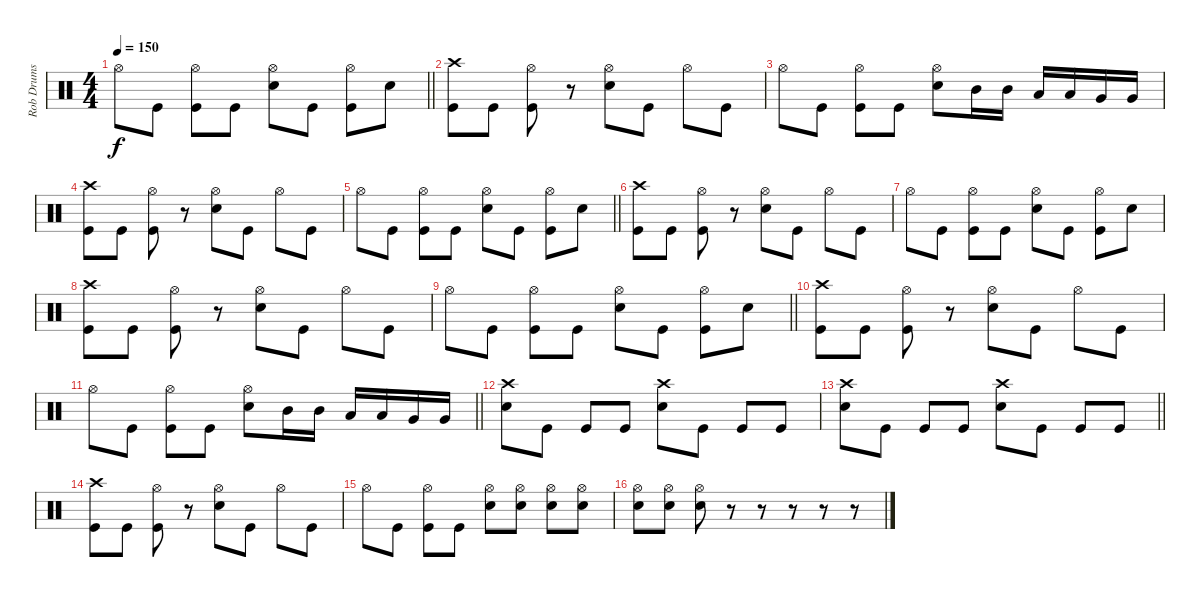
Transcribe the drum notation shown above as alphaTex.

\track ("Rob Drums" "Rob Drums") {instrument percussion}
\staff {score}
\articulation defaults
\ts (4 4)
\tempo 150
\clef neutral
\barLineRight lightlight
\ks c "Hi-Hat (open)".8{dy f} "Kick (hit)".8
("Hi-Hat (open)" "Kick (hit)").8 "Kick (hit)".8 ("Hi-Hat (open)" "Snare (hit) 2").8 "Kick (hit)".8 ("Hi-Hat (open)" "Kick (hit)").8 "Snare (hit) 2".8 |
("Crash high (hit)" "Kick (hit)").8 "Kick (hit)".8 ("Hi-Hat (open)" "Kick (hit)").8 r.8 ("Hi-Hat (open)" "Snare (hit) 2").8 "Kick (hit)".8 "Hi-Hat (open)".8 "Kick (hit)".8 |
"Hi-Hat (open)".8 "Kick (hit)".8 ("Hi-Hat (open)" "Kick (hit)").8 "Kick (hit)".8 ("Hi-Hat (open)" "Snare (hit) 2").8 "Mid Tom (hit)".16 "Mid Tom (hit)".16 "Low Tom (hit)".16 "Low Tom (hit)".16 "Very Low Tom (hit)".16 "Very Low Tom (hit)".16 |
("Crash high (hit)" "Kick (hit)").8 "Kick (hit)".8 ("Hi-Hat (open)" "Kick (hit)").8 r.8 ("Hi-Hat (open)" "Snare (hit) 2").8 "Kick (hit)".8 "Hi-Hat (open)".8 "Kick (hit)".8 |
\barLineRight lightlight "Hi-Hat (open)".8 "Kick (hit)".8
("Hi-Hat (open)" "Kick (hit)").8 "Kick (hit)".8 ("Hi-Hat (open)" "Snare (hit) 2").8 "Kick (hit)".8 ("Hi-Hat (open)" "Kick (hit)").8 "Snare (hit) 2".8 |
("Crash high (hit)" "Kick (hit)").8 "Kick (hit)".8 ("Hi-Hat (open)" "Kick (hit)").8 r.8 ("Hi-Hat (open)" "Snare (hit) 2").8 "Kick (hit)".8 "Hi-Hat (open)".8 "Kick (hit)".8 |
"Hi-Hat (open)".8 "Kick (hit)".8 ("Hi-Hat (open)" "Kick (hit)").8 "Kick (hit)".8 ("Hi-Hat (open)" "Snare (hit) 2").8 "Kick (hit)".8 ("Hi-Hat (open)" "Kick (hit)").8 "Snare (hit) 2".8 |
("Crash high (hit)" "Kick (hit)").8 "Kick (hit)".8 ("Hi-Hat (open)" "Kick (hit)").8 r.8 ("Hi-Hat (open)" "Snare (hit) 2").8 "Kick (hit)".8 "Hi-Hat (open)".8 "Kick (hit)".8 |
\barLineRight lightlight "Hi-Hat (open)".8 "Kick (hit)".8
("Hi-Hat (open)" "Kick (hit)").8 "Kick (hit)".8 ("Hi-Hat (open)" "Snare (hit) 2").8 "Kick (hit)".8 ("Hi-Hat (open)" "Kick (hit)").8 "Snare (hit) 2".8 |
("Crash high (hit)" "Kick (hit)").8 "Kick (hit)".8 ("Hi-Hat (open)" "Kick (hit)").8 r.8 ("Hi-Hat (open)" "Snare (hit) 2").8 "Kick (hit)".8 "Hi-Hat (open)".8 "Kick (hit)".8 |
\barLineRight lightlight "Hi-Hat (open)".8 "Kick (hit)".8
("Hi-Hat (open)" "Kick (hit)").8 "Kick (hit)".8 ("Hi-Hat (open)" "Snare (hit) 2").8 "Mid Tom (hit)".16 "Mid Tom (hit)".16 "Low Tom (hit)".16 "Low Tom (hit)".16 "Very Low Tom (hit)".16 "Very Low Tom (hit)".16 |
("Crash high (hit)" "Snare (hit) 2").8 "Kick (hit)".8 "Kick (hit)".8 "Kick (hit)".8 ("Crash high (hit)" "Snare (hit) 2").8 "Kick (hit)".8 "Kick (hit)".8 "Kick (hit)".8 |
\barLineRight lightlight
("Crash high (hit)" "Snare (hit) 2").8 "Kick (hit)".8 "Kick (hit)".8 "Kick (hit)".8 ("Crash high (hit)" "Snare (hit) 2").8 "Kick (hit)".8 "Kick (hit)".8 "Kick (hit)".8 |
("Crash high (hit)" "Kick (hit)").8 "Kick (hit)".8 ("Hi-Hat (open)" "Kick (hit)").8 r.8 ("Hi-Hat (open)" "Snare (hit) 2").8 "Kick (hit)".8 "Hi-Hat (open)".8 "Kick (hit)".8 |
"Hi-Hat (open)".8 "Kick (hit)".8 ("Hi-Hat (open)" "Kick (hit)").8 "Kick (hit)".8 ("Hi-Hat (open)" "Snare (hit) 2").8 ("Hi-Hat (open)" "Snare (hit) 2").8 ("Hi-Hat (open)" "Snare (hit) 2").8 ("Hi-Hat (open)" "Snare (hit) 2").8 |
("Hi-Hat (open)" "Snare (hit) 2").8 ("Hi-Hat (open)" "Snare (hit) 2").8 ("Hi-Hat (open)" "Snare (hit) 2").8 r.8 r.8 r.8 r.8 r.8
